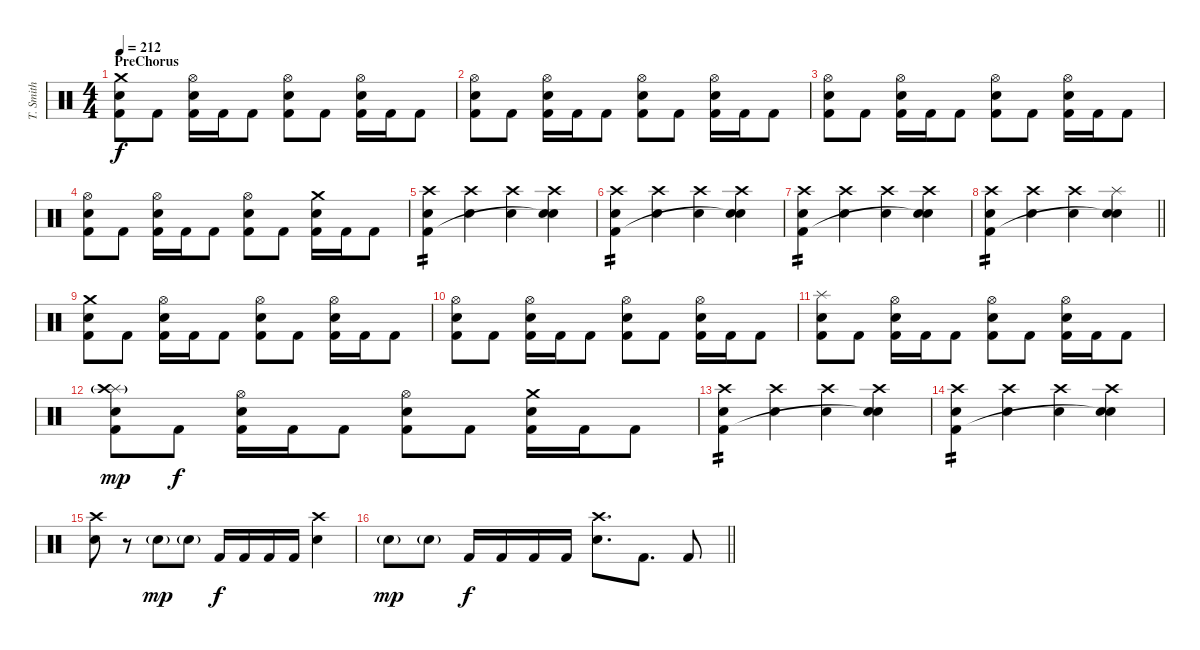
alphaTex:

\track ("T. Smith" "T. Smith") {instrument percussion}
\staff {score}
\articulation defaults
\ts (4 4)
\section ("" "PreChorus")
\tempo 212
\clef neutral
\ks c
("Crash medium (hit)" "Electric Snare (hit)" "Kick (hit) 2").8{dy f} "Kick (hit) 2".8 ("Hi-Hat (open)" "Electric Snare (hit)" "Kick (hit) 2").16 "Kick (hit) 2".16 "Kick (hit) 2".8 ("Hi-Hat (open)" "Electric Snare (hit)" "Kick (hit) 2").8 "Kick (hit) 2".8 ("Hi-Hat (open)" "Electric Snare (hit)" "Kick (hit) 2").16 "Kick (hit) 2".16 "Kick (hit) 2".8 |
("Hi-Hat (open)" "Electric Snare (hit)" "Kick (hit) 2").8 "Kick (hit) 2".8 ("Hi-Hat (open)" "Electric Snare (hit)" "Kick (hit) 2").16 "Kick (hit) 2".16 "Kick (hit) 2".8 ("Hi-Hat (open)" "Electric Snare (hit)" "Kick (hit) 2").8 "Kick (hit) 2".8 ("Hi-Hat (open)" "Electric Snare (hit)" "Kick (hit) 2").16 "Kick (hit) 2".16 "Kick (hit) 2".8 |
("Hi-Hat (open)" "Electric Snare (hit)" "Kick (hit) 2").8 "Kick (hit) 2".8 ("Hi-Hat (open)" "Electric Snare (hit)" "Kick (hit) 2").16 "Kick (hit) 2".16 "Kick (hit) 2".8 ("Hi-Hat (open)" "Electric Snare (hit)" "Kick (hit) 2").8 "Kick (hit) 2".8 ("Hi-Hat (open)" "Electric Snare (hit)" "Kick (hit) 2").16 "Kick (hit) 2".16 "Kick (hit) 2".8 |
("Hi-Hat (open)" "Electric Snare (hit)" "Kick (hit) 2").8 "Kick (hit) 2".8 ("Hi-Hat (open)" "Electric Snare (hit)" "Kick (hit) 2").16 "Kick (hit) 2".16 "Kick (hit) 2".8 ("Hi-Hat (open)" "Electric Snare (hit)" "Kick (hit) 2").8 "Kick (hit) 2".8 ("Crash medium (hit)" "Electric Snare (hit)" "Kick (hit) 2").16 "Kick (hit) 2".16 "Kick (hit) 2".8 |
("Crash high (hit)" "Electric Snare (hit)" "Kick (hit) 2").4{tp 2} ("Crash high (hit)" "Electric Snare (hit)").4 ("Crash high (hit)" "Electric Snare (hit)").4 ("Crash high (hit)" "Electric Snare (hit)" "Snare (hit)"{t}).4 |
("Crash high (hit)" "Electric Snare (hit)" "Kick (hit) 2").4{tp 2} ("Crash high (hit)" "Electric Snare (hit)").4 ("Crash high (hit)" "Electric Snare (hit)").4 ("Crash high (hit)" "Electric Snare (hit)" "Snare (hit)"{t}).4 |
("Crash high (hit)" "Electric Snare (hit)" "Kick (hit) 2").4{tp 2} ("Crash high (hit)" "Electric Snare (hit)").4 ("Crash high (hit)" "Electric Snare (hit)").4 ("Crash high (hit)" "Electric Snare (hit)" "Snare (hit)"{t}).4 |
\barLineRight lightlight
("Crash high (hit)" "Electric Snare (hit)" "Kick (hit) 2").4{tp 2} ("Crash high (hit)" "Electric Snare (hit)").4 ("Crash high (hit)" "Electric Snare (hit)").4 ("Splash (hit)" "Electric Snare (hit)" "Snare (hit)"{t}).4 |
("Crash medium (hit)" "Electric Snare (hit)" "Kick (hit) 2").8 "Kick (hit) 2".8 ("Hi-Hat (open)" "Electric Snare (hit)" "Kick (hit) 2").16 "Kick (hit) 2".16 "Kick (hit) 2".8 ("Hi-Hat (open)" "Electric Snare (hit)" "Kick (hit) 2").8 "Kick (hit) 2".8 ("Hi-Hat (open)" "Electric Snare (hit)" "Kick (hit) 2").16 "Kick (hit) 2".16 "Kick (hit) 2".8 |
("Hi-Hat (open)" "Electric Snare (hit)" "Kick (hit) 2").8 "Kick (hit) 2".8 ("Hi-Hat (open)" "Electric Snare (hit)" "Kick (hit) 2").16 "Kick (hit) 2".16 "Kick (hit) 2".8 ("Hi-Hat (open)" "Electric Snare (hit)" "Kick (hit) 2").8 "Kick (hit) 2".8 ("Hi-Hat (open)" "Electric Snare (hit)" "Kick (hit) 2").16 "Kick (hit) 2".16 "Kick (hit) 2".8 |
("Splash (hit)" "Electric Snare (hit)" "Kick (hit) 2").8 "Kick (hit) 2".8 ("Hi-Hat (open)" "Electric Snare (hit)" "Kick (hit) 2").16 "Kick (hit) 2".16 "Kick (hit) 2".8 ("Hi-Hat (open)" "Electric Snare (hit)" "Kick (hit) 2").8 "Kick (hit) 2".8 ("Hi-Hat (open)" "Electric Snare (hit)" "Kick (hit) 2").16 "Kick (hit) 2".16 "Kick (hit) 2".8 |
("Splash (hit)" "Crash high (hit)"{g} "Electric Snare (hit)" "Kick (hit) 2").8{dy mp} "Kick (hit) 2".8{dy f} ("Hi-Hat (open)" "Electric Snare (hit)" "Kick (hit) 2").16 "Kick (hit) 2".16 "Kick (hit) 2".8 ("Hi-Hat (open)" "Electric Snare (hit)" "Kick (hit) 2").8 "Kick (hit) 2".8 ("Crash medium (hit)" "Electric Snare (hit)" "Kick (hit) 2").16 "Kick (hit) 2".16 "Kick (hit) 2".8 |
("Crash high (hit)" "Electric Snare (hit)" "Kick (hit) 2").4{tp 2} ("Crash high (hit)" "Electric Snare (hit)").4 ("Crash high (hit)" "Electric Snare (hit)").4 ("Crash high (hit)" "Electric Snare (hit)" "Snare (hit)"{t}).4 |
("Crash high (hit)" "Electric Snare (hit)" "Kick (hit) 2").4{tp 2} ("Crash high (hit)" "Electric Snare (hit)").4 ("Crash high (hit)" "Electric Snare (hit)").4 ("Crash high (hit)" "Electric Snare (hit)" "Snare (hit)"{t}).4 |
("Crash high (hit)" "Electric Snare (hit)").8 r.8 "Electric Snare (hit)"{g}.8{dy mp} "Electric Snare (hit)"{g}.8 "Kick (hit) 2".16{dy f} "Kick (hit) 2".16 "Kick (hit) 2".16 "Kick (hit) 2".16 ("Crash high (hit)" "Electric Snare (hit)").4 |
\barLineRight lightlight "Electric Snare (hit)"{g}.8{dy mp} "Electric Snare (hit)"{g}.8 "Kick (hit) 2".16{dy f} "Kick (hit) 2".16 "Kick (hit) 2".16 "Kick (hit) 2".16
("Crash high (hit)" "Electric Snare (hit)").8{d} "Kick (hit) 2".8{d} "Kick (hit) 2".8
